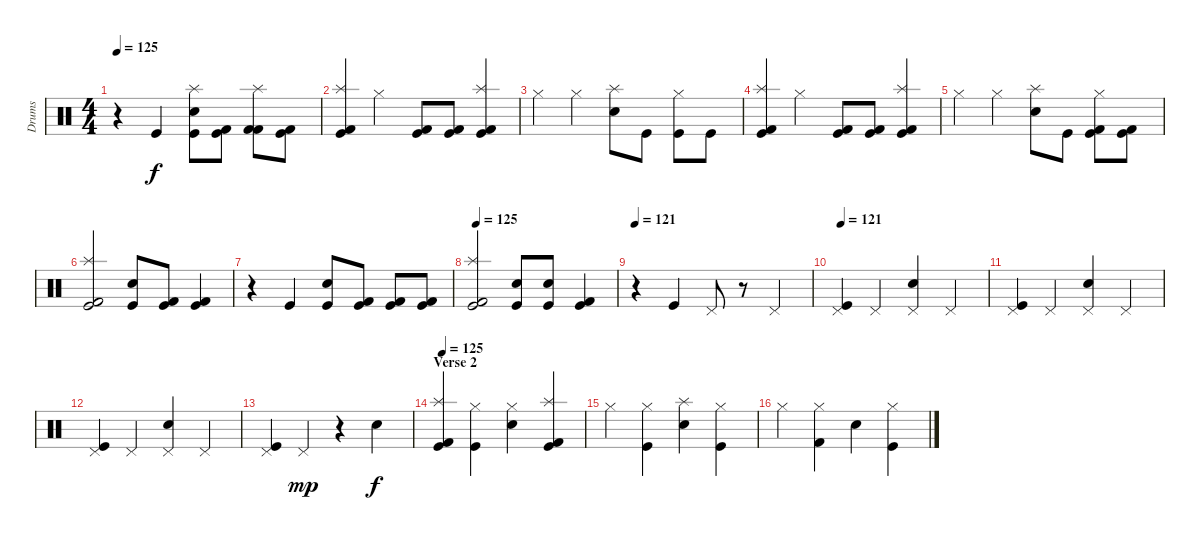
\track ("Drums" "Drums") {instrument percussion}
\staff {score}
\articulation defaults
\ts (4 4)
\tempo 125
\clef neutral
\ks c
r.4{dy f} "Kick (hit)".4 ("Electric Snare (hit)" "Kick (hit)" "Splash (hit)").8 ("Kick (hit) 2" "Kick (hit)").8 ("Kick (hit) 2" "Kick (hit) 2" "Splash (hit)").8 ("Kick (hit) 2" "Kick (hit)").8 |
("Kick (hit) 2" "Kick (hit)" "Splash (hit)").4 "Hi-Hat (closed)".4 ("Kick (hit) 2" "Kick (hit)").8 ("Kick (hit) 2" "Kick (hit)").8 ("Kick (hit) 2" "Kick (hit)" "Splash (hit)").4 |
"Hi-Hat (closed)".4 "Hi-Hat (closed)".4 ("Electric Snare (hit)" "Splash (hit)").8 "Kick (hit)".8 ("Kick (hit)" "Hi-Hat (closed)").8 "Kick (hit)".8 |
("Kick (hit) 2" "Kick (hit)" "Splash (hit)").4 "Hi-Hat (closed)".4 ("Kick (hit) 2" "Kick (hit)").8 ("Kick (hit) 2" "Kick (hit)").8 ("Kick (hit) 2" "Kick (hit)" "Splash (hit)").4 |
"Hi-Hat (closed)".4 "Hi-Hat (closed)".4 ("Electric Snare (hit)" "Splash (hit)").8 "Kick (hit)".8 ("Kick (hit) 2" "Hi-Hat (closed)" "Kick (hit)").8 ("Kick (hit) 2" "Kick (hit)").8 |
("Kick (hit) 2" "Kick (hit)" "Splash (hit)").2 ("Electric Snare (hit)" "Kick (hit)").8 ("Kick (hit) 2" "Kick (hit)").8 ("Kick (hit) 2" "Kick (hit)").4 |
r.4 "Kick (hit)".4 ("Electric Snare (hit)" "Kick (hit)").8 ("Kick (hit) 2" "Kick (hit)").8 ("Kick (hit) 2" "Kick (hit)").8 ("Kick (hit) 2" "Kick (hit)").8 |
\tempo 125
("Kick (hit) 2" "Kick (hit)" "Splash (hit)").2 ("Electric Snare (hit)" "Kick (hit)").8 ("Electric Snare (hit)" "Kick (hit)").8 ("Kick (hit) 2" "Kick (hit)").4 |
\tempo 121
r.4 "Kick (hit)".4 "Pedal Hi-Hat (hit)".8 r.8 "Pedal Hi-Hat (hit)".4 |
\tempo 121
("Pedal Hi-Hat (hit)" "Kick (hit)").4{volume 10} "Pedal Hi-Hat (hit)".4 ("Pedal Hi-Hat (hit)" "Electric Snare (hit)").4 "Pedal Hi-Hat (hit)".4 |
("Pedal Hi-Hat (hit)" "Kick (hit)").4 "Pedal Hi-Hat (hit)".4 ("Pedal Hi-Hat (hit)" "Electric Snare (hit)").4 "Pedal Hi-Hat (hit)".4 |
("Pedal Hi-Hat (hit)" "Kick (hit)").4 "Pedal Hi-Hat (hit)".4 ("Pedal Hi-Hat (hit)" "Electric Snare (hit)").4 "Pedal Hi-Hat (hit)".4 |
("Pedal Hi-Hat (hit)" "Kick (hit)").4 "Pedal Hi-Hat (hit)".4{dy mp} r.4 "Electric Snare (hit)".4{dy f volume 13} |
\section ("" "Verse 2")
\tempo 125
("Kick (hit) 2" "Kick (hit)" "Splash (hit)").4 ("Kick (hit)" "Hi-Hat (closed)").4 ("Electric Snare (hit)" "Hi-Hat (closed)").4 ("Kick (hit) 2" "Kick (hit)" "Splash (hit)").4 |
"Hi-Hat (closed)".4 ("Kick (hit)" "Hi-Hat (closed)").4 ("Electric Snare (hit)" "Splash (hit)").4 ("Kick (hit)" "Hi-Hat (closed)").4 |
"Hi-Hat (closed)".4 ("Kick (hit) 2" "Hi-Hat (closed)").4 "Electric Snare (hit)".4 ("Kick (hit)" "Hi-Hat (closed)").4
